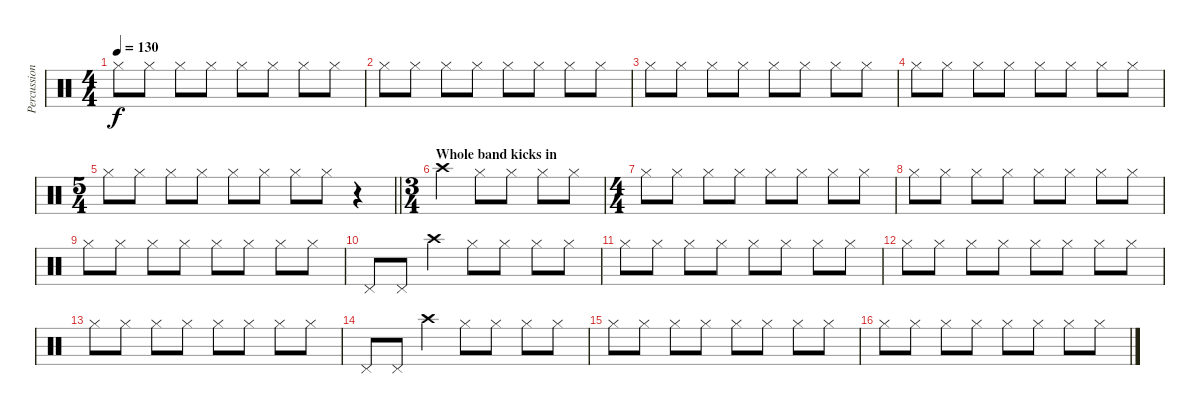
\track ("Percussion 2" "Percussion") {instrument percussion}
\staff {score}
\articulation defaults
\ts (4 4)
\tempo 130
\clef neutral
\ks c "Hi-Hat (closed)".8{dy f} "Hi-Hat (closed)".8 "Hi-Hat (closed)".8 "Hi-Hat (closed)".8 "Hi-Hat (closed)".8 "Hi-Hat (closed)".8 "Hi-Hat (closed)".8 "Hi-Hat (closed)".8
|
"Hi-Hat (closed)".8 "Hi-Hat (closed)".8 "Hi-Hat (closed)".8 "Hi-Hat (closed)".8 "Hi-Hat (closed)".8 "Hi-Hat (closed)".8 "Hi-Hat (closed)".8 "Hi-Hat (closed)".8 |
"Hi-Hat (closed)".8 "Hi-Hat (closed)".8 "Hi-Hat (closed)".8 "Hi-Hat (closed)".8 "Hi-Hat (closed)".8 "Hi-Hat (closed)".8 "Hi-Hat (closed)".8 "Hi-Hat (closed)".8 |
"Hi-Hat (closed)".8 "Hi-Hat (closed)".8 "Hi-Hat (closed)".8 "Hi-Hat (closed)".8 "Hi-Hat (closed)".8 "Hi-Hat (closed)".8 "Hi-Hat (closed)".8 "Hi-Hat (closed)".8 |
\ts (5 4)
\barLineRight lightlight "Hi-Hat (closed)".8 "Hi-Hat (closed)".8 "Hi-Hat (closed)".8 "Hi-Hat (closed)".8 "Hi-Hat (closed)".8 "Hi-Hat (closed)".8 "Hi-Hat (closed)".8 "Hi-Hat (closed)".8
r.4 |
\ts (3 4)
\section ("" "Whole band kicks in")
"Crash high (hit)".4 "Hi-Hat (closed)".8 "Hi-Hat (closed)".8 "Hi-Hat (closed)".8 "Hi-Hat (closed)".8 |
\ts (4 4)
"Hi-Hat (closed)".8 "Hi-Hat (closed)".8 "Hi-Hat (closed)".8 "Hi-Hat (closed)".8 "Hi-Hat (closed)".8 "Hi-Hat (closed)".8 "Hi-Hat (closed)".8 "Hi-Hat (closed)".8 |
"Hi-Hat (closed)".8 "Hi-Hat (closed)".8 "Hi-Hat (closed)".8 "Hi-Hat (closed)".8 "Hi-Hat (closed)".8 "Hi-Hat (closed)".8 "Hi-Hat (closed)".8 "Hi-Hat (closed)".8 |
"Hi-Hat (closed)".8 "Hi-Hat (closed)".8 "Hi-Hat (closed)".8 "Hi-Hat (closed)".8 "Hi-Hat (closed)".8 "Hi-Hat (closed)".8 "Hi-Hat (closed)".8 "Hi-Hat (closed)".8 |
"Pedal Hi-Hat (hit)".8 "Pedal Hi-Hat (hit)".8 "Crash high (hit)".4 "Hi-Hat (closed)".8 "Hi-Hat (closed)".8 "Hi-Hat (closed)".8 "Hi-Hat (closed)".8 |
"Hi-Hat (closed)".8 "Hi-Hat (closed)".8 "Hi-Hat (closed)".8 "Hi-Hat (closed)".8 "Hi-Hat (closed)".8 "Hi-Hat (closed)".8 "Hi-Hat (closed)".8 "Hi-Hat (closed)".8 |
"Hi-Hat (closed)".8 "Hi-Hat (closed)".8 "Hi-Hat (closed)".8 "Hi-Hat (closed)".8 "Hi-Hat (closed)".8 "Hi-Hat (closed)".8 "Hi-Hat (closed)".8 "Hi-Hat (closed)".8 |
"Hi-Hat (closed)".8 "Hi-Hat (closed)".8 "Hi-Hat (closed)".8 "Hi-Hat (closed)".8 "Hi-Hat (closed)".8 "Hi-Hat (closed)".8 "Hi-Hat (closed)".8 "Hi-Hat (closed)".8 |
"Pedal Hi-Hat (hit)".8 "Pedal Hi-Hat (hit)".8 "Crash high (hit)".4 "Hi-Hat (closed)".8 "Hi-Hat (closed)".8 "Hi-Hat (closed)".8 "Hi-Hat (closed)".8 |
"Hi-Hat (closed)".8 "Hi-Hat (closed)".8 "Hi-Hat (closed)".8 "Hi-Hat (closed)".8 "Hi-Hat (closed)".8 "Hi-Hat (closed)".8 "Hi-Hat (closed)".8 "Hi-Hat (closed)".8 |
"Hi-Hat (closed)".8 "Hi-Hat (closed)".8 "Hi-Hat (closed)".8 "Hi-Hat (closed)".8 "Hi-Hat (closed)".8 "Hi-Hat (closed)".8 "Hi-Hat (closed)".8 "Hi-Hat (closed)".8
